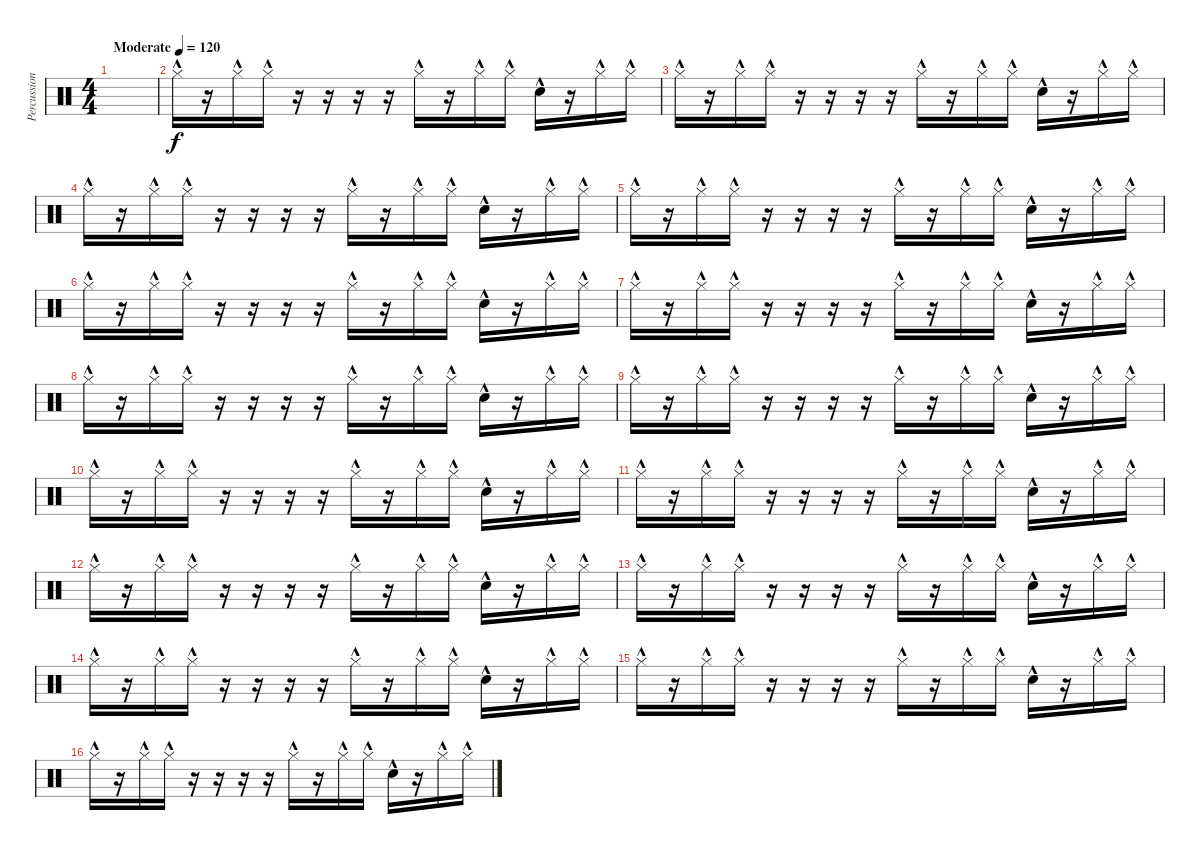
\track ("Percussion" "Percussion") {instrument percussion}
\staff {score}
\articulation defaults
\ts (4 4)
\tempo (120 "Moderate")
\clef neutral
\ks c
|
"Hi-Hat (closed)"{hac}.16 r.16 "Hi-Hat (closed)"{hac}.16 "Hi-Hat (closed)"{hac}.16 r.16 r.16 r.16 r.16 "Hi-Hat (closed)"{hac}.16 r.16 "Hi-Hat (closed)"{hac}.16 "Hi-Hat (closed)"{hac}.16 "Snare (hit) 2"{hac}.16 r.16 "Hi-Hat (closed)"{hac}.16 "Hi-Hat (closed)"{hac}.16 |
"Hi-Hat (closed)"{hac}.16 r.16 "Hi-Hat (closed)"{hac}.16 "Hi-Hat (closed)"{hac}.16 r.16 r.16 r.16 r.16 "Hi-Hat (closed)"{hac}.16 r.16 "Hi-Hat (closed)"{hac}.16 "Hi-Hat (closed)"{hac}.16 "Snare (hit) 2"{hac}.16 r.16 "Hi-Hat (closed)"{hac}.16 "Hi-Hat (closed)"{hac}.16 |
"Hi-Hat (closed)"{hac}.16 r.16 "Hi-Hat (closed)"{hac}.16 "Hi-Hat (closed)"{hac}.16 r.16 r.16 r.16 r.16 "Hi-Hat (closed)"{hac}.16 r.16 "Hi-Hat (closed)"{hac}.16 "Hi-Hat (closed)"{hac}.16 "Snare (hit) 2"{hac}.16 r.16 "Hi-Hat (closed)"{hac}.16 "Hi-Hat (closed)"{hac}.16 |
"Hi-Hat (closed)"{hac}.16 r.16 "Hi-Hat (closed)"{hac}.16 "Hi-Hat (closed)"{hac}.16 r.16 r.16 r.16 r.16 "Hi-Hat (closed)"{hac}.16 r.16 "Hi-Hat (closed)"{hac}.16 "Hi-Hat (closed)"{hac}.16 "Snare (hit) 2"{hac}.16 r.16 "Hi-Hat (closed)"{hac}.16 "Hi-Hat (closed)"{hac}.16 |
"Hi-Hat (closed)"{hac}.16 r.16 "Hi-Hat (closed)"{hac}.16 "Hi-Hat (closed)"{hac}.16 r.16 r.16 r.16 r.16 "Hi-Hat (closed)"{hac}.16 r.16 "Hi-Hat (closed)"{hac}.16 "Hi-Hat (closed)"{hac}.16 "Snare (hit) 2"{hac}.16 r.16 "Hi-Hat (closed)"{hac}.16 "Hi-Hat (closed)"{hac}.16 |
"Hi-Hat (closed)"{hac}.16 r.16 "Hi-Hat (closed)"{hac}.16 "Hi-Hat (closed)"{hac}.16 r.16 r.16 r.16 r.16 "Hi-Hat (closed)"{hac}.16 r.16 "Hi-Hat (closed)"{hac}.16 "Hi-Hat (closed)"{hac}.16 "Snare (hit) 2"{hac}.16 r.16 "Hi-Hat (closed)"{hac}.16 "Hi-Hat (closed)"{hac}.16 |
"Hi-Hat (closed)"{hac}.16 r.16 "Hi-Hat (closed)"{hac}.16 "Hi-Hat (closed)"{hac}.16 r.16 r.16 r.16 r.16 "Hi-Hat (closed)"{hac}.16 r.16 "Hi-Hat (closed)"{hac}.16 "Hi-Hat (closed)"{hac}.16 "Snare (hit) 2"{hac}.16 r.16 "Hi-Hat (closed)"{hac}.16 "Hi-Hat (closed)"{hac}.16 |
"Hi-Hat (closed)"{hac}.16 r.16 "Hi-Hat (closed)"{hac}.16 "Hi-Hat (closed)"{hac}.16 r.16 r.16 r.16 r.16 "Hi-Hat (closed)"{hac}.16 r.16 "Hi-Hat (closed)"{hac}.16 "Hi-Hat (closed)"{hac}.16 "Snare (hit) 2"{hac}.16 r.16 "Hi-Hat (closed)"{hac}.16 "Hi-Hat (closed)"{hac}.16 |
"Hi-Hat (closed)"{hac}.16 r.16 "Hi-Hat (closed)"{hac}.16 "Hi-Hat (closed)"{hac}.16 r.16 r.16 r.16 r.16 "Hi-Hat (closed)"{hac}.16 r.16 "Hi-Hat (closed)"{hac}.16 "Hi-Hat (closed)"{hac}.16 "Snare (hit) 2"{hac}.16 r.16 "Hi-Hat (closed)"{hac}.16 "Hi-Hat (closed)"{hac}.16 |
"Hi-Hat (closed)"{hac}.16 r.16 "Hi-Hat (closed)"{hac}.16 "Hi-Hat (closed)"{hac}.16 r.16 r.16 r.16 r.16 "Hi-Hat (closed)"{hac}.16 r.16 "Hi-Hat (closed)"{hac}.16 "Hi-Hat (closed)"{hac}.16 "Snare (hit) 2"{hac}.16 r.16 "Hi-Hat (closed)"{hac}.16 "Hi-Hat (closed)"{hac}.16 |
"Hi-Hat (closed)"{hac}.16 r.16 "Hi-Hat (closed)"{hac}.16 "Hi-Hat (closed)"{hac}.16 r.16 r.16 r.16 r.16 "Hi-Hat (closed)"{hac}.16 r.16 "Hi-Hat (closed)"{hac}.16 "Hi-Hat (closed)"{hac}.16 "Snare (hit) 2"{hac}.16 r.16 "Hi-Hat (closed)"{hac}.16 "Hi-Hat (closed)"{hac}.16 |
"Hi-Hat (closed)"{hac}.16 r.16 "Hi-Hat (closed)"{hac}.16 "Hi-Hat (closed)"{hac}.16 r.16 r.16 r.16 r.16 "Hi-Hat (closed)"{hac}.16 r.16 "Hi-Hat (closed)"{hac}.16 "Hi-Hat (closed)"{hac}.16 "Snare (hit) 2"{hac}.16 r.16 "Hi-Hat (closed)"{hac}.16 "Hi-Hat (closed)"{hac}.16 |
"Hi-Hat (closed)"{hac}.16 r.16 "Hi-Hat (closed)"{hac}.16 "Hi-Hat (closed)"{hac}.16 r.16 r.16 r.16 r.16 "Hi-Hat (closed)"{hac}.16 r.16 "Hi-Hat (closed)"{hac}.16 "Hi-Hat (closed)"{hac}.16 "Snare (hit) 2"{hac}.16 r.16 "Hi-Hat (closed)"{hac}.16 "Hi-Hat (closed)"{hac}.16 |
"Hi-Hat (closed)"{hac}.16 r.16 "Hi-Hat (closed)"{hac}.16 "Hi-Hat (closed)"{hac}.16 r.16 r.16 r.16 r.16 "Hi-Hat (closed)"{hac}.16 r.16 "Hi-Hat (closed)"{hac}.16 "Hi-Hat (closed)"{hac}.16 "Snare (hit) 2"{hac}.16 r.16 "Hi-Hat (closed)"{hac}.16 "Hi-Hat (closed)"{hac}.16 |
"Hi-Hat (closed)"{hac}.16 r.16 "Hi-Hat (closed)"{hac}.16 "Hi-Hat (closed)"{hac}.16 r.16 r.16 r.16 r.16 "Hi-Hat (closed)"{hac}.16 r.16 "Hi-Hat (closed)"{hac}.16 "Hi-Hat (closed)"{hac}.16 "Snare (hit) 2"{hac}.16 r.16 "Hi-Hat (closed)"{hac}.16 "Hi-Hat (closed)"{hac}.16
